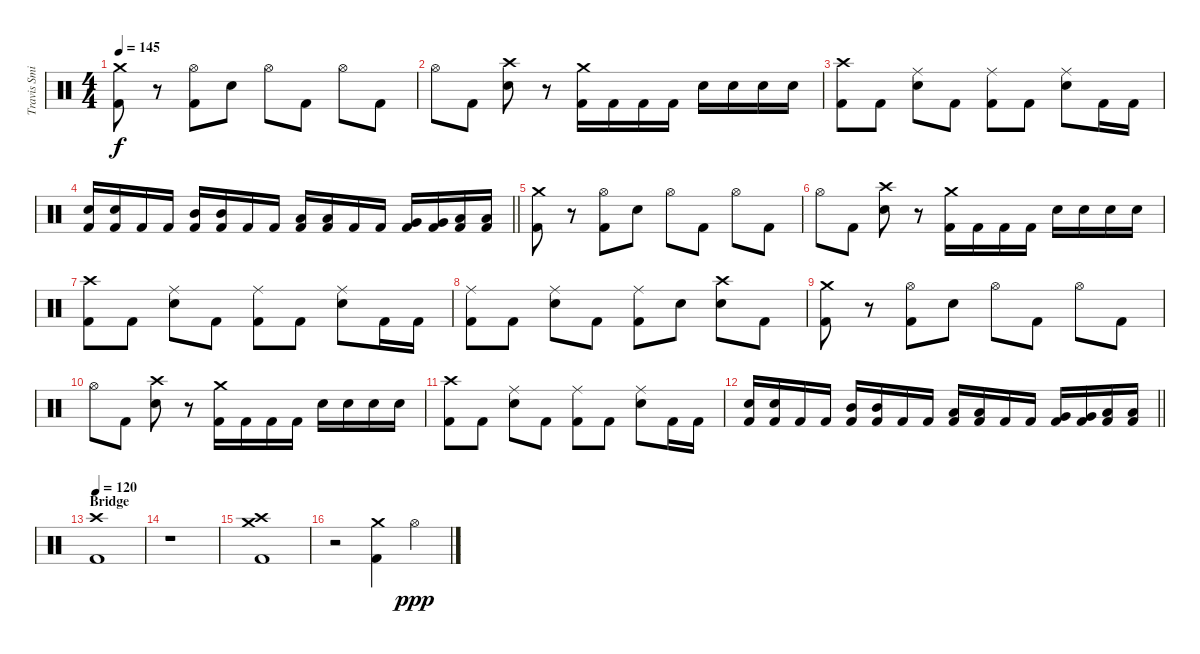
\track ("Travis Smith" "Travis Smi") {instrument percussion}
\staff {score}
\articulation defaults
\ts (4 4)
\tempo 145
\clef neutral
\ks c
("Crash medium (hit)" "Kick (hit) 2").8{dy f} r.8 ("Hi-Hat (open)" "Kick (hit) 2").8 "Electric Snare (hit)".8 "Hi-Hat (open)".8 "Kick (hit) 2".8 "Hi-Hat (open)".8 "Kick (hit) 2".8 |
"Hi-Hat (open)".8 "Kick (hit) 2".8 ("Crash high (hit)" "Electric Snare (hit)").8 r.8 ("Crash medium (hit)" "Kick (hit) 2").16 "Kick (hit) 2".16 "Kick (hit) 2".16 "Kick (hit) 2".16 "Electric Snare (hit)".16 "Electric Snare (hit)".16 "Electric Snare (hit)".16 "Electric Snare (hit)".16 |
("Crash high (hit)" "Kick (hit) 2").8 "Kick (hit) 2".8 ("Ride (middle)" "Electric Snare (hit)").8 "Kick (hit) 2".8 ("Ride (middle)" "Kick (hit) 2").8 "Kick (hit) 2".8 ("Ride (middle)" "Electric Snare (hit)").8 "Kick (hit) 2".16 "Kick (hit) 2".16 |
\barLineRight lightlight
("Electric Snare (hit)" "Kick (hit) 2").16 ("Electric Snare (hit)" "Kick (hit) 2").16 "Kick (hit) 2".16 "Kick (hit) 2".16 ("Mid Tom (hit)" "Kick (hit) 2").16 ("Mid Tom (hit)" "Kick (hit) 2").16 "Kick (hit) 2".16 "Kick (hit) 2".16 ("Low Tom (hit)" "Kick (hit) 2").16 ("Low Tom (hit)" "Kick (hit) 2").16 "Kick (hit) 2".16 "Kick (hit) 2".16 ("Very Low Tom (hit)" "Kick (hit) 2").16 ("Very Low Tom (hit)" "Kick (hit) 2").16 ("Low Floor Tom (hit)" "Kick (hit) 2").16 ("Low Floor Tom (hit)" "Kick (hit) 2").16 |
("Crash medium (hit)" "Kick (hit) 2").8 r.8 ("Hi-Hat (open)" "Kick (hit) 2").8 "Electric Snare (hit)".8 "Hi-Hat (open)".8 "Kick (hit) 2".8 "Hi-Hat (open)".8 "Kick (hit) 2".8 |
"Hi-Hat (open)".8 "Kick (hit) 2".8 ("Crash high (hit)" "Electric Snare (hit)").8 r.8 ("Crash medium (hit)" "Kick (hit) 2").16 "Kick (hit) 2".16 "Kick (hit) 2".16 "Kick (hit) 2".16 "Electric Snare (hit)".16 "Electric Snare (hit)".16 "Electric Snare (hit)".16 "Electric Snare (hit)".16 |
("Crash high (hit)" "Kick (hit) 2").8 "Kick (hit) 2".8 ("Ride (middle)" "Electric Snare (hit)").8 "Kick (hit) 2".8 ("Ride (middle)" "Kick (hit) 2").8 "Kick (hit) 2".8 ("Ride (middle)" "Electric Snare (hit)").8 "Kick (hit) 2".16 "Kick (hit) 2".16 |
("Ride (middle)" "Kick (hit) 2").8 "Kick (hit) 2".8 ("Ride (middle)" "Electric Snare (hit)").8 "Kick (hit) 2".8 ("Ride (middle)" "Kick (hit) 2").8 "Electric Snare (hit)".8 ("Crash high (hit)" "Electric Snare (hit)").8 "Kick (hit) 2".8 |
("Crash medium (hit)" "Kick (hit) 2").8 r.8 ("Hi-Hat (open)" "Kick (hit) 2").8 "Electric Snare (hit)".8 "Hi-Hat (open)".8 "Kick (hit) 2".8 "Hi-Hat (open)".8 "Kick (hit) 2".8 |
"Hi-Hat (open)".8 "Kick (hit) 2".8 ("Crash high (hit)" "Electric Snare (hit)").8 r.8 ("Crash medium (hit)" "Kick (hit) 2").16 "Kick (hit) 2".16 "Kick (hit) 2".16 "Kick (hit) 2".16 "Electric Snare (hit)".16 "Electric Snare (hit)".16 "Electric Snare (hit)".16 "Electric Snare (hit)".16 |
("Crash high (hit)" "Kick (hit) 2").8 "Kick (hit) 2".8 ("Ride (middle)" "Electric Snare (hit)").8 "Kick (hit) 2".8 ("Ride (middle)" "Kick (hit) 2").8 "Kick (hit) 2".8 ("Ride (middle)" "Electric Snare (hit)").8 "Kick (hit) 2".16 "Kick (hit) 2".16 |
\barLineRight lightlight
("Electric Snare (hit)" "Kick (hit) 2").16 ("Electric Snare (hit)" "Kick (hit) 2").16 "Kick (hit) 2".16 "Kick (hit) 2".16 ("Mid Tom (hit)" "Kick (hit) 2").16 ("Mid Tom (hit)" "Kick (hit) 2").16 "Kick (hit) 2".16 "Kick (hit) 2".16 ("Low Tom (hit)" "Kick (hit) 2").16 ("Low Tom (hit)" "Kick (hit) 2").16 "Kick (hit) 2".16 "Kick (hit) 2".16 ("Very Low Tom (hit)" "Kick (hit) 2").16 ("Very Low Tom (hit)" "Kick (hit) 2").16 ("Low Floor Tom (hit)" "Kick (hit) 2").16 ("Low Floor Tom (hit)" "Kick (hit) 2").16 |
\section ("" "Bridge")
\tempo 120
("Crash high (hit)" "Kick (hit) 2").1 |
r.1 |
("Crash medium (hit)" "Crash high (hit)" "Kick (hit) 2").1 |
r.2 ("Crash medium (hit)" "Kick (hit) 2").4 "Hi-Hat (open)".4{dy ppp}
